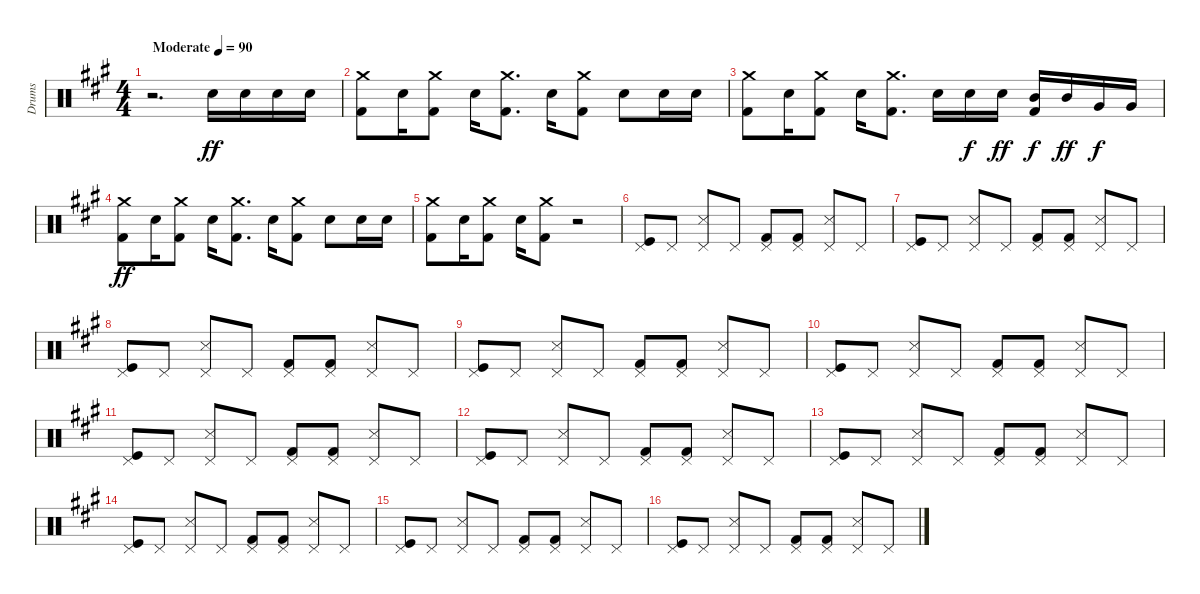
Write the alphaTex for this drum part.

\track ("Drums" "Drums") {instrument percussion}
\staff {score}
\articulation defaults
\ts (4 4)
\tempo (90 "Moderate")
\clef neutral
\ks a
r.2{d dy ff} "Electric Snare (hit)".16 "Electric Snare (hit)".16 "Electric Snare (hit)".16 "Electric Snare (hit)".16 |
("Kick (hit) 2" "Crash medium (hit)").8 "Electric Snare (hit)".16 ("Kick (hit) 2" "Crash medium (hit)").8 "Electric Snare (hit)".16 ("Kick (hit) 2" "Crash medium (hit)").8{d} "Electric Snare (hit)".16 ("Kick (hit) 2" "Crash medium (hit)").8 "Electric Snare (hit)".8 "Electric Snare (hit)".16 "Electric Snare (hit)".16 |
("Kick (hit) 2" "Crash medium (hit)").8 "Electric Snare (hit)".16 ("Kick (hit) 2" "Crash medium (hit)").8 "Electric Snare (hit)".16 ("Kick (hit) 2" "Crash medium (hit)").8{d} "Electric Snare (hit)".16 "Electric Snare (hit)".16{dy f} "Electric Snare (hit)".16{dy ff} ("Mid Tom (hit)" "Kick (hit) 2").16{dy f} "Mid Tom (hit)".16{dy ff} "Very Low Tom (hit)".16{dy f} "Very Low Tom (hit)".16 |
("Kick (hit) 2" "Crash medium (hit)").8{dy ff} "Electric Snare (hit)".16 ("Kick (hit) 2" "Crash medium (hit)").8 "Electric Snare (hit)".16 ("Kick (hit) 2" "Crash medium (hit)").8{d} "Electric Snare (hit)".16 ("Kick (hit) 2" "Crash medium (hit)").8 "Electric Snare (hit)".8 "Electric Snare (hit)".16 "Electric Snare (hit)".16 |
("Kick (hit) 2" "Crash medium (hit)").8 "Electric Snare (hit)".16 ("Kick (hit) 2" "Crash medium (hit)").8 "Electric Snare (hit)".16 ("Kick (hit) 2" "Crash medium (hit)").8 r.2 |
("Kick (hit)" "Pedal Hi-Hat (hit)").8 "Pedal Hi-Hat (hit)".8 ("Snare (side stick) 3" "Pedal Hi-Hat (hit)").8 "Pedal Hi-Hat (hit)".8 ("Kick (hit) 2" "Pedal Hi-Hat (hit)").8 ("Kick (hit) 2" "Pedal Hi-Hat (hit)").8 ("Snare (side stick) 3" "Pedal Hi-Hat (hit)").8 "Pedal Hi-Hat (hit)".8 |
("Kick (hit)" "Pedal Hi-Hat (hit)").8 "Pedal Hi-Hat (hit)".8 ("Snare (side stick) 3" "Pedal Hi-Hat (hit)").8 "Pedal Hi-Hat (hit)".8 ("Kick (hit) 2" "Pedal Hi-Hat (hit)").8 ("Kick (hit) 2" "Pedal Hi-Hat (hit)").8 ("Snare (side stick) 3" "Pedal Hi-Hat (hit)").8 "Pedal Hi-Hat (hit)".8 |
("Kick (hit)" "Pedal Hi-Hat (hit)").8 "Pedal Hi-Hat (hit)".8 ("Snare (side stick) 3" "Pedal Hi-Hat (hit)").8 "Pedal Hi-Hat (hit)".8 ("Kick (hit) 2" "Pedal Hi-Hat (hit)").8 ("Kick (hit) 2" "Pedal Hi-Hat (hit)").8 ("Snare (side stick) 3" "Pedal Hi-Hat (hit)").8 "Pedal Hi-Hat (hit)".8 |
("Kick (hit)" "Pedal Hi-Hat (hit)").8 "Pedal Hi-Hat (hit)".8 ("Snare (side stick) 3" "Pedal Hi-Hat (hit)").8 "Pedal Hi-Hat (hit)".8 ("Kick (hit) 2" "Pedal Hi-Hat (hit)").8 ("Kick (hit) 2" "Pedal Hi-Hat (hit)").8 ("Snare (side stick) 3" "Pedal Hi-Hat (hit)").8 "Pedal Hi-Hat (hit)".8 |
("Kick (hit)" "Pedal Hi-Hat (hit)").8 "Pedal Hi-Hat (hit)".8 ("Snare (side stick) 3" "Pedal Hi-Hat (hit)").8 "Pedal Hi-Hat (hit)".8 ("Kick (hit) 2" "Pedal Hi-Hat (hit)").8 ("Kick (hit) 2" "Pedal Hi-Hat (hit)").8 ("Snare (side stick) 3" "Pedal Hi-Hat (hit)").8 "Pedal Hi-Hat (hit)".8 |
("Kick (hit)" "Pedal Hi-Hat (hit)").8 "Pedal Hi-Hat (hit)".8 ("Snare (side stick) 3" "Pedal Hi-Hat (hit)").8 "Pedal Hi-Hat (hit)".8 ("Kick (hit) 2" "Pedal Hi-Hat (hit)").8 ("Kick (hit) 2" "Pedal Hi-Hat (hit)").8 ("Snare (side stick) 3" "Pedal Hi-Hat (hit)").8 "Pedal Hi-Hat (hit)".8 |
("Kick (hit)" "Pedal Hi-Hat (hit)").8 "Pedal Hi-Hat (hit)".8 ("Snare (side stick) 3" "Pedal Hi-Hat (hit)").8 "Pedal Hi-Hat (hit)".8 ("Kick (hit) 2" "Pedal Hi-Hat (hit)").8 ("Kick (hit) 2" "Pedal Hi-Hat (hit)").8 ("Snare (side stick) 3" "Pedal Hi-Hat (hit)").8 "Pedal Hi-Hat (hit)".8 |
("Kick (hit)" "Pedal Hi-Hat (hit)").8 "Pedal Hi-Hat (hit)".8 ("Snare (side stick) 3" "Pedal Hi-Hat (hit)").8 "Pedal Hi-Hat (hit)".8 ("Kick (hit) 2" "Pedal Hi-Hat (hit)").8 ("Kick (hit) 2" "Pedal Hi-Hat (hit)").8 ("Snare (side stick) 3" "Pedal Hi-Hat (hit)").8 "Pedal Hi-Hat (hit)".8 |
("Kick (hit)" "Pedal Hi-Hat (hit)").8 "Pedal Hi-Hat (hit)".8 ("Snare (side stick) 3" "Pedal Hi-Hat (hit)").8 "Pedal Hi-Hat (hit)".8 ("Kick (hit) 2" "Pedal Hi-Hat (hit)").8 ("Kick (hit) 2" "Pedal Hi-Hat (hit)").8 ("Snare (side stick) 3" "Pedal Hi-Hat (hit)").8 "Pedal Hi-Hat (hit)".8 |
("Kick (hit)" "Pedal Hi-Hat (hit)").8 "Pedal Hi-Hat (hit)".8 ("Snare (side stick) 3" "Pedal Hi-Hat (hit)").8 "Pedal Hi-Hat (hit)".8 ("Kick (hit) 2" "Pedal Hi-Hat (hit)").8 ("Kick (hit) 2" "Pedal Hi-Hat (hit)").8 ("Snare (side stick) 3" "Pedal Hi-Hat (hit)").8 "Pedal Hi-Hat (hit)".8 |
("Kick (hit)" "Pedal Hi-Hat (hit)").8 "Pedal Hi-Hat (hit)".8 ("Snare (side stick) 3" "Pedal Hi-Hat (hit)").8 "Pedal Hi-Hat (hit)".8 ("Kick (hit) 2" "Pedal Hi-Hat (hit)").8 ("Kick (hit) 2" "Pedal Hi-Hat (hit)").8 ("Snare (side stick) 3" "Pedal Hi-Hat (hit)").8 "Pedal Hi-Hat (hit)".8
